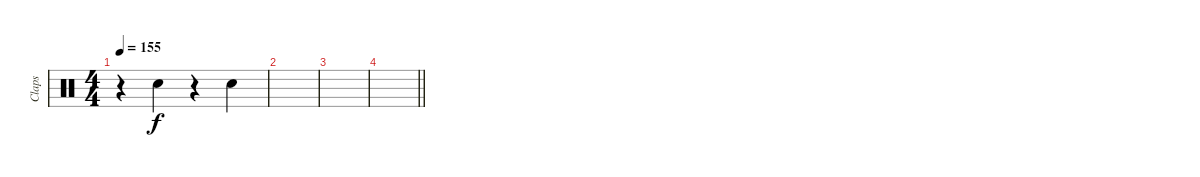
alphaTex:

\track ("Claps" "Claps") {instrument percussion}
\staff {score}
\articulation defaults
\ts (4 4)
\tempo 155
\clef neutral
\ks c
r.4{dy f} "Hand Clap (hit)".4 r.4 "Hand Clap (hit)".4 |
|
|
\barLineRight lightlight
